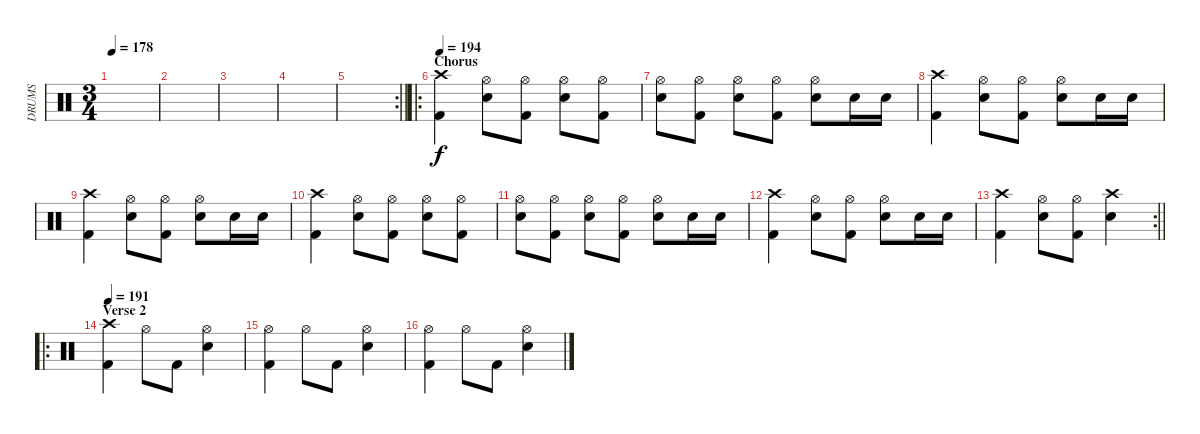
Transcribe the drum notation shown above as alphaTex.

\track ("DRUMS" "DRUMS") {instrument percussion}
\staff {score}
\articulation defaults
\ts (3 4)
\tempo 178
\clef neutral
\ks c
|
|
|
|
\rc 2
\barLineRight lightlight
|
\ro
\section ("" "Chorus")
\tempo 194
("Crash high (hit)" "Kick (hit) 2").4 ("Hi-Hat (open)" "Snare (hit) 2").8 ("Hi-Hat (open)" "Kick (hit) 2").8 ("Hi-Hat (open)" "Snare (hit) 2").8 ("Hi-Hat (open)" "Kick (hit) 2").8 |
("Hi-Hat (open)" "Snare (hit) 2").8 ("Hi-Hat (open)" "Kick (hit) 2").8 ("Hi-Hat (open)" "Snare (hit) 2").8 ("Hi-Hat (open)" "Kick (hit) 2").8 ("Hi-Hat (open)" "Snare (hit) 2").8 "Snare (hit) 2".16 "Snare (hit) 2".16 |
("Crash high (hit)" "Kick (hit) 2").4 ("Hi-Hat (open)" "Snare (hit) 2").8 ("Hi-Hat (open)" "Kick (hit) 2").8 ("Hi-Hat (open)" "Snare (hit) 2").8 "Snare (hit) 2".16 "Snare (hit) 2".16 |
("Crash high (hit)" "Kick (hit) 2").4 ("Hi-Hat (open)" "Snare (hit) 2").8 ("Hi-Hat (open)" "Kick (hit) 2").8 ("Hi-Hat (open)" "Snare (hit) 2").8 "Snare (hit) 2".16 "Snare (hit) 2".16 |
("Crash high (hit)" "Kick (hit) 2").4 ("Hi-Hat (open)" "Snare (hit) 2").8 ("Hi-Hat (open)" "Kick (hit) 2").8 ("Hi-Hat (open)" "Snare (hit) 2").8 ("Hi-Hat (open)" "Kick (hit) 2").8 |
("Hi-Hat (open)" "Snare (hit) 2").8 ("Hi-Hat (open)" "Kick (hit) 2").8 ("Hi-Hat (open)" "Snare (hit) 2").8 ("Hi-Hat (open)" "Kick (hit) 2").8 ("Hi-Hat (open)" "Snare (hit) 2").8 "Snare (hit) 2".16 "Snare (hit) 2".16 |
("Crash high (hit)" "Kick (hit) 2").4 ("Hi-Hat (open)" "Snare (hit) 2").8 ("Hi-Hat (open)" "Kick (hit) 2").8 ("Hi-Hat (open)" "Snare (hit) 2").8 "Snare (hit) 2".16 "Snare (hit) 2".16 |
\rc 2
\barLineRight lightlight
("Crash high (hit)" "Kick (hit) 2").4 ("Hi-Hat (open)" "Snare (hit) 2").8 ("Hi-Hat (open)" "Kick (hit) 2").8 ("Crash high (hit)" "Snare (hit) 2").4 |
\ro
\section ("" "Verse 2")
\tempo 191
("Crash high (hit)" "Kick (hit) 2").4 "Hi-Hat (open)".8 "Kick (hit) 2".8 ("Hi-Hat (open)" "Snare (hit) 2").4 |
("Hi-Hat (open)" "Kick (hit) 2").4 "Hi-Hat (open)".8 "Kick (hit) 2".8 ("Hi-Hat (open)" "Snare (hit) 2").4 |
("Hi-Hat (open)" "Kick (hit) 2").4 "Hi-Hat (open)".8 "Kick (hit) 2".8 ("Hi-Hat (open)" "Snare (hit) 2").4
